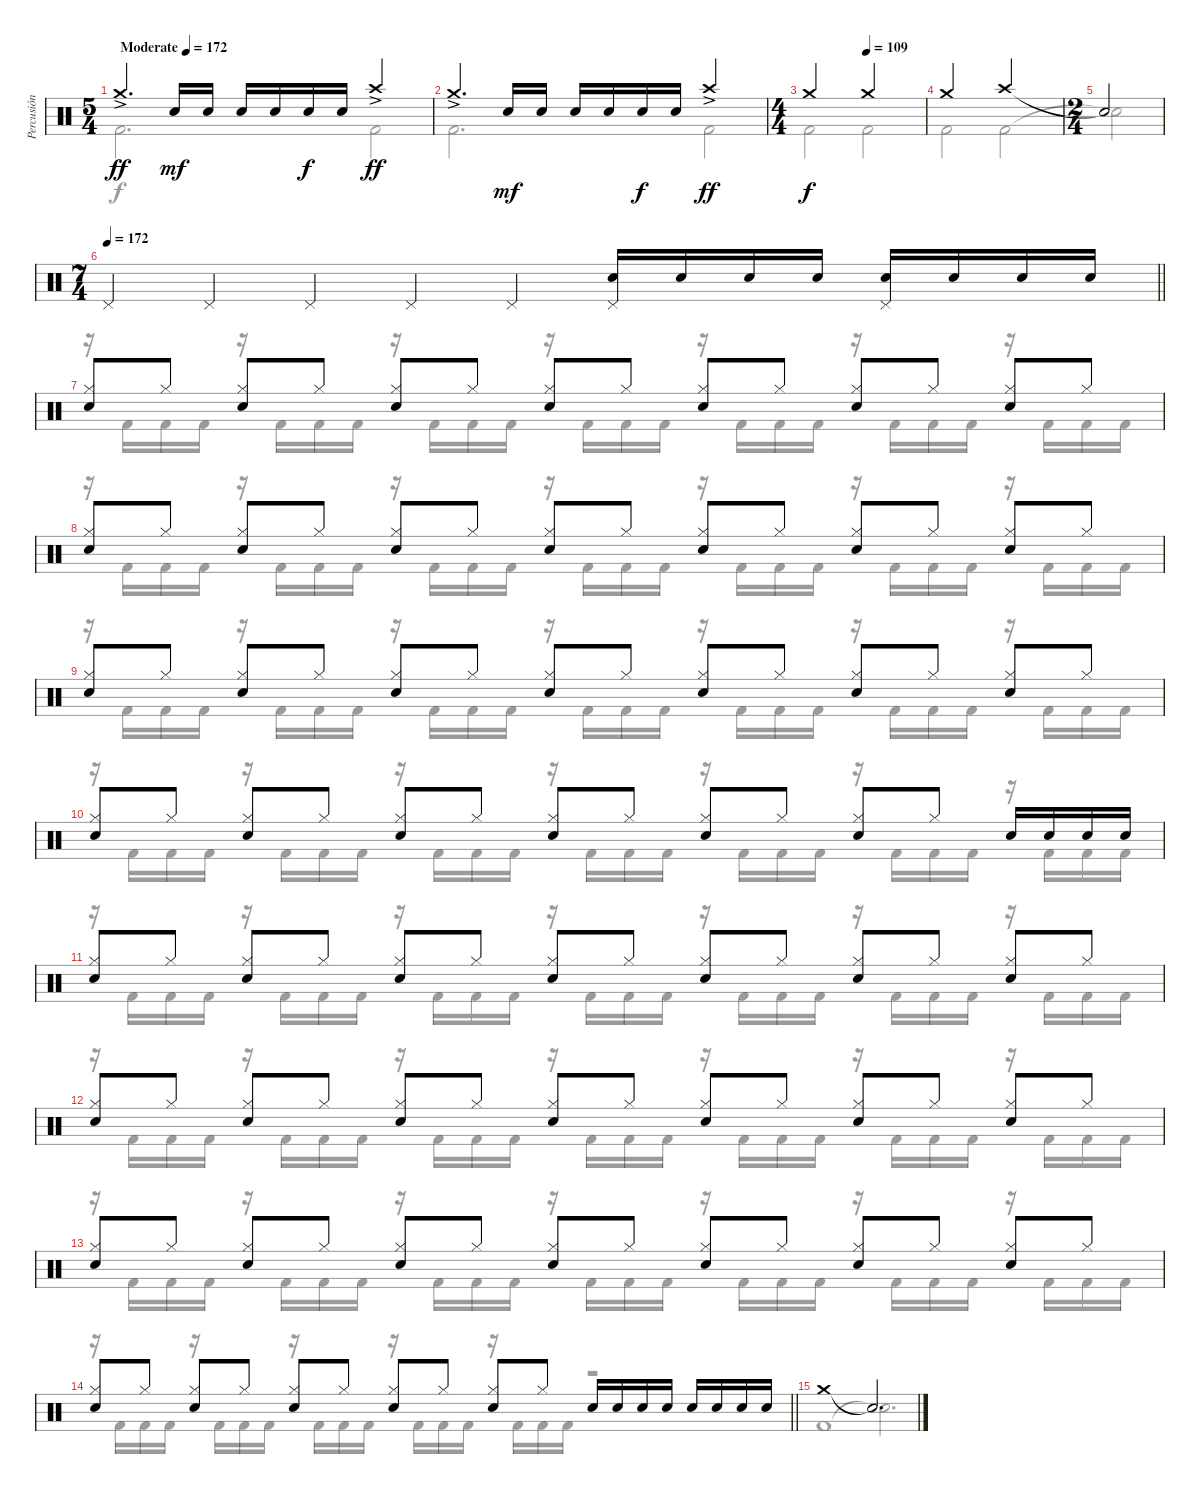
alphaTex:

\track ("Percusión" "Percusión") {instrument percussion}
\staff {score}
\articulation defaults
\voice
\ts (5 4)
\tempo (172 "Moderate")
\clef neutral
\ks c "Crash medium (hit)"{ac}.4{d dy ff} "Snare (hit) 2".16{dy mf} "Snare (hit) 2".16 "Snare (hit) 2".16 "Snare (hit) 2".16 "Snare (hit) 2".16{dy f} "Snare (hit) 2".16 "Crash high (hit)"{ac}.2{dy ff}
|
"Crash medium (hit)"{ac}.4{d} "Snare (hit) 2".16{dy mf} "Snare (hit) 2".16 "Snare (hit) 2".16 "Snare (hit) 2".16 "Snare (hit) 2".16{dy f} "Snare (hit) 2".16 "Crash high (hit)"{ac}.2{dy ff} |
\ts (4 4)
\tempo (109 0.5)
"Crash medium (hit)".2{dy f} "Crash medium (hit)".2 |
"Crash medium (hit)".2 "Crash high (hit)".2 |
\ts (2 4)
"Snare (hit)"{t}.2 |
\ts (7 4)
\tempo 172
\barLineRight lightlight "Pedal Hi-Hat (hit)".4 "Pedal Hi-Hat (hit)".4 "Pedal Hi-Hat (hit)".4 "Pedal Hi-Hat (hit)".4 "Pedal Hi-Hat (hit)".4
("Pedal Hi-Hat (hit)" "Snare (hit) 2").16 "Snare (hit) 2".16 "Snare (hit) 2".16 "Snare (hit) 2".16 ("Pedal Hi-Hat (hit)" "Snare (hit) 2").16 "Snare (hit) 2".16 "Snare (hit) 2".16 "Snare (hit) 2".16 |
("Hi-Hat (closed)" "Snare (hit) 2").8 "Hi-Hat (closed)".8 ("Hi-Hat (closed)" "Snare (hit) 2").8 "Hi-Hat (closed)".8 ("Hi-Hat (closed)" "Snare (hit) 2").8 "Hi-Hat (closed)".8 ("Hi-Hat (closed)" "Snare (hit) 2").8 "Hi-Hat (closed)".8 ("Hi-Hat (closed)" "Snare (hit) 2").8 "Hi-Hat (closed)".8 ("Hi-Hat (closed)" "Snare (hit) 2").8 "Hi-Hat (closed)".8 ("Hi-Hat (closed)" "Snare (hit) 2").8 "Hi-Hat (closed)".8 |
("Hi-Hat (closed)" "Snare (hit) 2").8 "Hi-Hat (closed)".8 ("Hi-Hat (closed)" "Snare (hit) 2").8 "Hi-Hat (closed)".8 ("Hi-Hat (closed)" "Snare (hit) 2").8 "Hi-Hat (closed)".8 ("Hi-Hat (closed)" "Snare (hit) 2").8 "Hi-Hat (closed)".8 ("Hi-Hat (closed)" "Snare (hit) 2").8 "Hi-Hat (closed)".8 ("Hi-Hat (closed)" "Snare (hit) 2").8 "Hi-Hat (closed)".8 ("Hi-Hat (closed)" "Snare (hit) 2").8 "Hi-Hat (closed)".8 |
("Hi-Hat (closed)" "Snare (hit) 2").8 "Hi-Hat (closed)".8 ("Hi-Hat (closed)" "Snare (hit) 2").8 "Hi-Hat (closed)".8 ("Hi-Hat (closed)" "Snare (hit) 2").8 "Hi-Hat (closed)".8 ("Hi-Hat (closed)" "Snare (hit) 2").8 "Hi-Hat (closed)".8 ("Hi-Hat (closed)" "Snare (hit) 2").8 "Hi-Hat (closed)".8 ("Hi-Hat (closed)" "Snare (hit) 2").8 "Hi-Hat (closed)".8 ("Hi-Hat (closed)" "Snare (hit) 2").8 "Hi-Hat (closed)".8 |
("Hi-Hat (closed)" "Snare (hit) 2").8 "Hi-Hat (closed)".8 ("Hi-Hat (closed)" "Snare (hit) 2").8 "Hi-Hat (closed)".8 ("Hi-Hat (closed)" "Snare (hit) 2").8 "Hi-Hat (closed)".8 ("Hi-Hat (closed)" "Snare (hit) 2").8 "Hi-Hat (closed)".8 ("Hi-Hat (closed)" "Snare (hit) 2").8 "Hi-Hat (closed)".8 ("Hi-Hat (closed)" "Snare (hit) 2").8 "Hi-Hat (closed)".8 "Snare (hit) 2".16 "Snare (hit) 2".16 "Snare (hit) 2".16 "Snare (hit) 2".16 |
("Hi-Hat (closed)" "Snare (hit) 2").8 "Hi-Hat (closed)".8 ("Hi-Hat (closed)" "Snare (hit) 2").8 "Hi-Hat (closed)".8 ("Hi-Hat (closed)" "Snare (hit) 2").8 "Hi-Hat (closed)".8 ("Hi-Hat (closed)" "Snare (hit) 2").8 "Hi-Hat (closed)".8 ("Hi-Hat (closed)" "Snare (hit) 2").8 "Hi-Hat (closed)".8 ("Hi-Hat (closed)" "Snare (hit) 2").8 "Hi-Hat (closed)".8 ("Hi-Hat (closed)" "Snare (hit) 2").8 "Hi-Hat (closed)".8 |
("Hi-Hat (closed)" "Snare (hit) 2").8 "Hi-Hat (closed)".8 ("Hi-Hat (closed)" "Snare (hit) 2").8 "Hi-Hat (closed)".8 ("Hi-Hat (closed)" "Snare (hit) 2").8 "Hi-Hat (closed)".8 ("Hi-Hat (closed)" "Snare (hit) 2").8 "Hi-Hat (closed)".8 ("Hi-Hat (closed)" "Snare (hit) 2").8 "Hi-Hat (closed)".8 ("Hi-Hat (closed)" "Snare (hit) 2").8 "Hi-Hat (closed)".8 ("Hi-Hat (closed)" "Snare (hit) 2").8 "Hi-Hat (closed)".8 |
("Hi-Hat (closed)" "Snare (hit) 2").8 "Hi-Hat (closed)".8 ("Hi-Hat (closed)" "Snare (hit) 2").8 "Hi-Hat (closed)".8 ("Hi-Hat (closed)" "Snare (hit) 2").8 "Hi-Hat (closed)".8 ("Hi-Hat (closed)" "Snare (hit) 2").8 "Hi-Hat (closed)".8 ("Hi-Hat (closed)" "Snare (hit) 2").8 "Hi-Hat (closed)".8 ("Hi-Hat (closed)" "Snare (hit) 2").8 "Hi-Hat (closed)".8 ("Hi-Hat (closed)" "Snare (hit) 2").8 "Hi-Hat (closed)".8 |
\barLineRight lightlight
("Hi-Hat (closed)" "Snare (hit) 2").8 "Hi-Hat (closed)".8 ("Hi-Hat (closed)" "Snare (hit) 2").8 "Hi-Hat (closed)".8 ("Hi-Hat (closed)" "Snare (hit) 2").8 "Hi-Hat (closed)".8 ("Hi-Hat (closed)" "Snare (hit) 2").8 "Hi-Hat (closed)".8 ("Hi-Hat (closed)" "Snare (hit) 2").8 "Hi-Hat (closed)".8 "Snare (hit) 2".16 "Snare (hit) 2".16 "Snare (hit) 2".16 "Snare (hit) 2".16 "Snare (hit) 2".16 "Snare (hit) 2".16 "Snare (hit) 2".16 "Snare (hit) 2".16 |
"Crash medium (hit)".1 "Snare (hit)"{t}.2{d} |
\voice
\clef neutral
\ottava regular
\simile none
\ks c "Kick (hit) 2".2{d dy f} "Kick (hit) 2".2
|
"Kick (hit) 2".2{d} "Kick (hit) 2".2 |
"Kick (hit) 2".2 "Kick (hit) 2".2 |
"Kick (hit) 2".2 "Kick (hit) 2".2 |
"Snare (hit)"{t}.2 |
\barLineRight lightlight
|
r.16 "Kick (hit) 2".16 "Kick (hit) 2".16 "Kick (hit) 2".16 r.16 "Kick (hit) 2".16 "Kick (hit) 2".16 "Kick (hit) 2".16 r.16 "Kick (hit) 2".16 "Kick (hit) 2".16 "Kick (hit) 2".16 r.16 "Kick (hit) 2".16 "Kick (hit) 2".16 "Kick (hit) 2".16 r.16 "Kick (hit) 2".16 "Kick (hit) 2".16 "Kick (hit) 2".16 r.16 "Kick (hit) 2".16 "Kick (hit) 2".16 "Kick (hit) 2".16 r.16 "Kick (hit) 2".16 "Kick (hit) 2".16 "Kick (hit) 2".16 |
r.16 "Kick (hit) 2".16 "Kick (hit) 2".16 "Kick (hit) 2".16 r.16 "Kick (hit) 2".16 "Kick (hit) 2".16 "Kick (hit) 2".16 r.16 "Kick (hit) 2".16 "Kick (hit) 2".16 "Kick (hit) 2".16 r.16 "Kick (hit) 2".16 "Kick (hit) 2".16 "Kick (hit) 2".16 r.16 "Kick (hit) 2".16 "Kick (hit) 2".16 "Kick (hit) 2".16 r.16 "Kick (hit) 2".16 "Kick (hit) 2".16 "Kick (hit) 2".16 r.16 "Kick (hit) 2".16 "Kick (hit) 2".16 "Kick (hit) 2".16 |
r.16 "Kick (hit) 2".16 "Kick (hit) 2".16 "Kick (hit) 2".16 r.16 "Kick (hit) 2".16 "Kick (hit) 2".16 "Kick (hit) 2".16 r.16 "Kick (hit) 2".16 "Kick (hit) 2".16 "Kick (hit) 2".16 r.16 "Kick (hit) 2".16 "Kick (hit) 2".16 "Kick (hit) 2".16 r.16 "Kick (hit) 2".16 "Kick (hit) 2".16 "Kick (hit) 2".16 r.16 "Kick (hit) 2".16 "Kick (hit) 2".16 "Kick (hit) 2".16 r.16 "Kick (hit) 2".16 "Kick (hit) 2".16 "Kick (hit) 2".16 |
r.16 "Kick (hit) 2".16 "Kick (hit) 2".16 "Kick (hit) 2".16 r.16 "Kick (hit) 2".16 "Kick (hit) 2".16 "Kick (hit) 2".16 r.16 "Kick (hit) 2".16 "Kick (hit) 2".16 "Kick (hit) 2".16 r.16 "Kick (hit) 2".16 "Kick (hit) 2".16 "Kick (hit) 2".16 r.16 "Kick (hit) 2".16 "Kick (hit) 2".16 "Kick (hit) 2".16 r.16 "Kick (hit) 2".16 "Kick (hit) 2".16 "Kick (hit) 2".16 r.16 "Kick (hit) 2".16 "Kick (hit) 2".16 "Kick (hit) 2".16 |
r.16 "Kick (hit) 2".16 "Kick (hit) 2".16 "Kick (hit) 2".16 r.16 "Kick (hit) 2".16 "Kick (hit) 2".16 "Kick (hit) 2".16 r.16 "Kick (hit) 2".16 "Kick (hit) 2".16 "Kick (hit) 2".16 r.16 "Kick (hit) 2".16 "Kick (hit) 2".16 "Kick (hit) 2".16 r.16 "Kick (hit) 2".16 "Kick (hit) 2".16 "Kick (hit) 2".16 r.16 "Kick (hit) 2".16 "Kick (hit) 2".16 "Kick (hit) 2".16 r.16 "Kick (hit) 2".16 "Kick (hit) 2".16 "Kick (hit) 2".16 |
r.16 "Kick (hit) 2".16 "Kick (hit) 2".16 "Kick (hit) 2".16 r.16 "Kick (hit) 2".16 "Kick (hit) 2".16 "Kick (hit) 2".16 r.16 "Kick (hit) 2".16 "Kick (hit) 2".16 "Kick (hit) 2".16 r.16 "Kick (hit) 2".16 "Kick (hit) 2".16 "Kick (hit) 2".16 r.16 "Kick (hit) 2".16 "Kick (hit) 2".16 "Kick (hit) 2".16 r.16 "Kick (hit) 2".16 "Kick (hit) 2".16 "Kick (hit) 2".16 r.16 "Kick (hit) 2".16 "Kick (hit) 2".16 "Kick (hit) 2".16 |
r.16 "Kick (hit) 2".16 "Kick (hit) 2".16 "Kick (hit) 2".16 r.16 "Kick (hit) 2".16 "Kick (hit) 2".16 "Kick (hit) 2".16 r.16 "Kick (hit) 2".16 "Kick (hit) 2".16 "Kick (hit) 2".16 r.16 "Kick (hit) 2".16 "Kick (hit) 2".16 "Kick (hit) 2".16 r.16 "Kick (hit) 2".16 "Kick (hit) 2".16 "Kick (hit) 2".16 r.16 "Kick (hit) 2".16 "Kick (hit) 2".16 "Kick (hit) 2".16 r.16 "Kick (hit) 2".16 "Kick (hit) 2".16 "Kick (hit) 2".16 |
\barLineRight lightlight
r.16 "Kick (hit) 2".16 "Kick (hit) 2".16 "Kick (hit) 2".16 r.16 "Kick (hit) 2".16 "Kick (hit) 2".16 "Kick (hit) 2".16 r.16 "Kick (hit) 2".16 "Kick (hit) 2".16 "Kick (hit) 2".16 r.16 "Kick (hit) 2".16 "Kick (hit) 2".16 "Kick (hit) 2".16 r.16 "Kick (hit) 2".16 "Kick (hit) 2".16 "Kick (hit) 2".16 r.2 |
"Kick (hit) 2".1 "Snare (hit)"{t}.2{d} |
